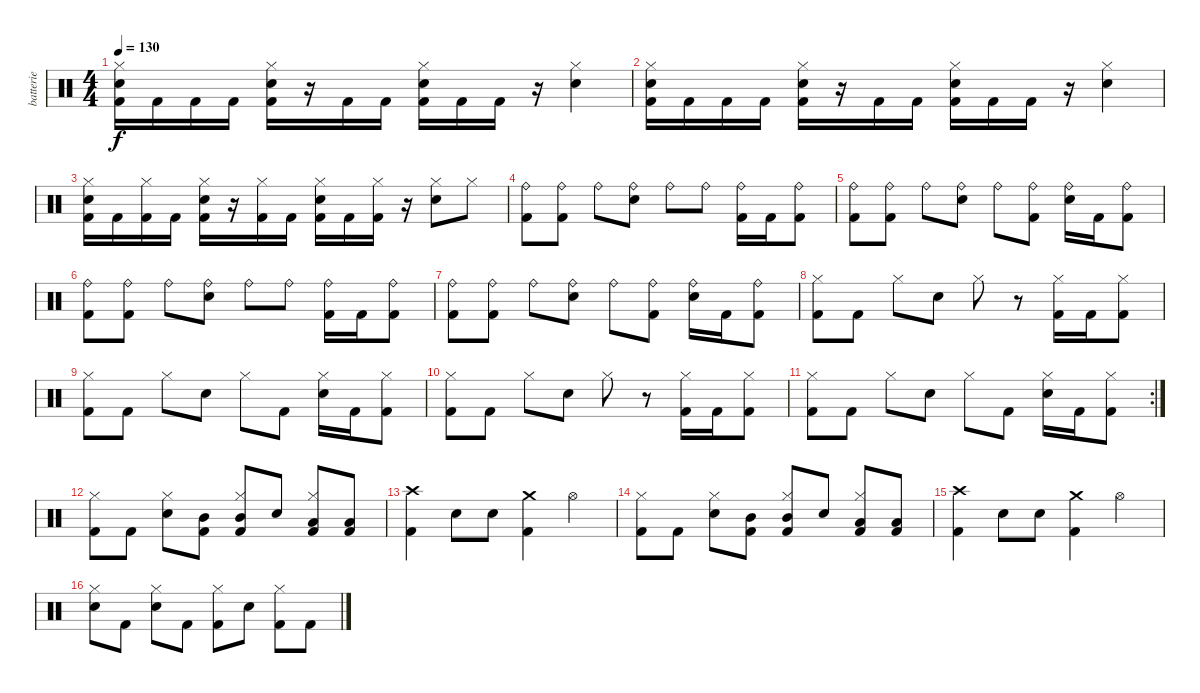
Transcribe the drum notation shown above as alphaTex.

\track ("batterie" "batterie") {instrument percussion}
\staff {score}
\articulation defaults
\ts (4 4)
\tempo 130
\clef neutral
\ks c
("Snare (hit) 2" "Kick (hit) 2" "Hi-Hat (closed)").16{dy f} "Kick (hit) 2".16 "Kick (hit) 2".16 "Kick (hit) 2".16 ("Snare (hit) 2" "Kick (hit) 2" "Hi-Hat (closed)").16 r.16 "Kick (hit) 2".16 "Kick (hit) 2".16 ("Snare (hit) 2" "Kick (hit) 2" "Hi-Hat (closed)").16 "Kick (hit) 2".16 "Kick (hit) 2".16 r.16 ("Snare (hit) 2" "Hi-Hat (closed)").4 |
("Snare (hit) 2" "Kick (hit) 2" "Hi-Hat (closed)").16 "Kick (hit) 2".16 "Kick (hit) 2".16 "Kick (hit) 2".16 ("Snare (hit) 2" "Kick (hit) 2" "Hi-Hat (closed)").16 r.16 "Kick (hit) 2".16 "Kick (hit) 2".16 ("Snare (hit) 2" "Kick (hit) 2" "Hi-Hat (closed)").16 "Kick (hit) 2".16 "Kick (hit) 2".16 r.16 ("Snare (hit) 2" "Hi-Hat (closed)").4 |
("Snare (hit) 2" "Kick (hit) 2" "Hi-Hat (closed)").16 "Kick (hit) 2".16 ("Kick (hit) 2" "Hi-Hat (closed)").16 "Kick (hit) 2".16 ("Snare (hit) 2" "Kick (hit) 2" "Hi-Hat (closed)").16 r.16 ("Kick (hit) 2" "Hi-Hat (closed)").16 "Kick (hit) 2".16 ("Snare (hit) 2" "Kick (hit) 2" "Hi-Hat (closed)").16 "Kick (hit) 2".16 ("Kick (hit) 2" "Hi-Hat (closed)").16 r.16 ("Snare (hit) 2" "Hi-Hat (closed)").8 "Hi-Hat (closed)".8 |
("Kick (hit) 2" "Ride (bell)").8 ("Kick (hit) 2" "Ride (bell)").8 "Ride (bell)".8 ("Snare (hit) 2" "Ride (bell)").8 "Ride (bell)".8 "Ride (bell)".8 ("Kick (hit) 2" "Ride (bell)").16 "Kick (hit) 2".16 ("Kick (hit) 2" "Ride (bell)").8 |
("Kick (hit) 2" "Ride (bell)").8 ("Kick (hit) 2" "Ride (bell)").8 "Ride (bell)".8 ("Snare (hit) 2" "Ride (bell)").8 "Ride (bell)".8 ("Kick (hit) 2" "Ride (bell)").8 ("Snare (hit) 2" "Ride (bell)").16 "Kick (hit) 2".16 ("Kick (hit) 2" "Ride (bell)").8 |
("Kick (hit) 2" "Ride (bell)").8 ("Kick (hit) 2" "Ride (bell)").8 "Ride (bell)".8 ("Snare (hit) 2" "Ride (bell)").8 "Ride (bell)".8 "Ride (bell)".8 ("Kick (hit) 2" "Ride (bell)").16 "Kick (hit) 2".16 ("Kick (hit) 2" "Ride (bell)").8 |
("Kick (hit) 2" "Ride (bell)").8 ("Kick (hit) 2" "Ride (bell)").8 "Ride (bell)".8 ("Snare (hit) 2" "Ride (bell)").8 "Ride (bell)".8 ("Kick (hit) 2" "Ride (bell)").8 ("Snare (hit) 2" "Ride (bell)").16 "Kick (hit) 2".16 ("Kick (hit) 2" "Ride (bell)").8 |
("Kick (hit) 2" "Hi-Hat (closed)").8 "Kick (hit) 2".8 "Hi-Hat (closed)".8 "Snare (hit) 2".8 "Hi-Hat (closed)".8 r.8 ("Kick (hit) 2" "Hi-Hat (closed)").16 "Kick (hit) 2".16 ("Kick (hit) 2" "Hi-Hat (closed)").8 |
("Kick (hit) 2" "Hi-Hat (closed)").8 "Kick (hit) 2".8 "Hi-Hat (closed)".8 "Snare (hit) 2".8 "Hi-Hat (closed)".8 "Kick (hit) 2".8 ("Snare (hit) 2" "Hi-Hat (closed)").16 "Kick (hit) 2".16 ("Kick (hit) 2" "Hi-Hat (closed)").8 |
("Kick (hit) 2" "Hi-Hat (closed)").8 "Kick (hit) 2".8 "Hi-Hat (closed)".8 "Snare (hit) 2".8 "Hi-Hat (closed)".8 r.8 ("Kick (hit) 2" "Hi-Hat (closed)").16 "Kick (hit) 2".16 ("Kick (hit) 2" "Hi-Hat (closed)").8 |
\rc 2
("Kick (hit) 2" "Hi-Hat (closed)").8 "Kick (hit) 2".8 "Hi-Hat (closed)".8 "Snare (hit) 2".8 "Hi-Hat (closed)".8 "Kick (hit) 2".8 ("Snare (hit) 2" "Hi-Hat (closed)").16 "Kick (hit) 2".16 ("Kick (hit) 2" "Hi-Hat (closed)").8 |
("Kick (hit) 2" "Hi-Hat (closed)").8 "Kick (hit) 2".8 ("Snare (hit) 2" "Hi-Hat (closed)").8 ("Mid Tom (hit)" "Kick (hit) 2").8 ("Mid Tom (hit)" "Kick (hit) 2" "Hi-Hat (closed)").8 "Snare (hit) 2".8 ("Low Tom (hit)" "Kick (hit) 2" "Hi-Hat (closed)").8 ("Low Tom (hit)" "Kick (hit) 2").8 |
("Crash high (hit)" "Kick (hit) 2").4 "Snare (hit) 2".8 "Snare (hit) 2".8 ("Crash medium (hit)" "Kick (hit) 2").4 "Hi-Hat (open)".4 |
("Kick (hit) 2" "Hi-Hat (closed)").8 "Kick (hit) 2".8 ("Snare (hit) 2" "Hi-Hat (closed)").8 ("Mid Tom (hit)" "Kick (hit) 2").8 ("Mid Tom (hit)" "Kick (hit) 2" "Hi-Hat (closed)").8 "Snare (hit) 2".8 ("Low Tom (hit)" "Kick (hit) 2" "Hi-Hat (closed)").8 ("Low Tom (hit)" "Kick (hit) 2").8 |
("Crash high (hit)" "Kick (hit) 2").4 "Snare (hit) 2".8 "Snare (hit) 2".8 ("Crash medium (hit)" "Kick (hit) 2").4 "Hi-Hat (open)".4 |
("Snare (hit) 2" "Hi-Hat (closed)").8 "Kick (hit) 2".8 ("Snare (hit) 2" "Hi-Hat (closed)").8 "Kick (hit) 2".8 ("Kick (hit) 2" "Hi-Hat (closed)").8 "Snare (hit) 2".8 ("Kick (hit) 2" "Hi-Hat (closed)").8 "Kick (hit) 2".8
